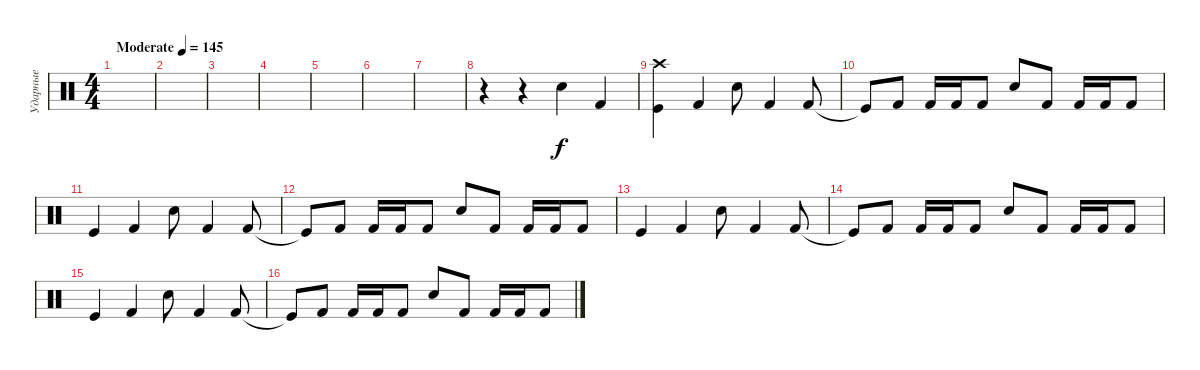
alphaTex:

\track ("Ударные" "Ударные") {instrument percussion}
\staff {score}
\articulation defaults
\ts (4 4)
\tempo (145 "Moderate")
\clef neutral
\ks c
|
|
|
|
|
|
|
r.4 r.4 "Electric Snare (hit)".4 "Kick (hit) 2".4 |
("Crash high (hit)" "Kick (hit)").4 "Kick (hit) 2".4 "Electric Snare (hit)".8 "Kick (hit) 2".4 "Kick (hit) 2".8 |
"Kick (hit)"{t}.8 "Kick (hit) 2".8 "Kick (hit) 2".16 "Kick (hit) 2".16 "Kick (hit) 2".8 "Electric Snare (hit)".8 "Kick (hit) 2".8 "Kick (hit) 2".16 "Kick (hit) 2".16 "Kick (hit) 2".8 |
"Kick (hit)".4 "Kick (hit) 2".4 "Electric Snare (hit)".8 "Kick (hit) 2".4 "Kick (hit) 2".8 |
"Kick (hit)"{t}.8 "Kick (hit) 2".8 "Kick (hit) 2".16 "Kick (hit) 2".16 "Kick (hit) 2".8 "Electric Snare (hit)".8 "Kick (hit) 2".8 "Kick (hit) 2".16 "Kick (hit) 2".16 "Kick (hit) 2".8 |
"Kick (hit)".4 "Kick (hit) 2".4 "Electric Snare (hit)".8 "Kick (hit) 2".4 "Kick (hit) 2".8 |
"Kick (hit)"{t}.8 "Kick (hit) 2".8 "Kick (hit) 2".16 "Kick (hit) 2".16 "Kick (hit) 2".8 "Electric Snare (hit)".8 "Kick (hit) 2".8 "Kick (hit) 2".16 "Kick (hit) 2".16 "Kick (hit) 2".8 |
"Kick (hit)".4 "Kick (hit) 2".4 "Electric Snare (hit)".8 "Kick (hit) 2".4 "Kick (hit) 2".8 |
"Kick (hit)"{t}.8 "Kick (hit) 2".8 "Kick (hit) 2".16 "Kick (hit) 2".16 "Kick (hit) 2".8 "Electric Snare (hit)".8 "Kick (hit) 2".8 "Kick (hit) 2".16 "Kick (hit) 2".16 "Kick (hit) 2".8
